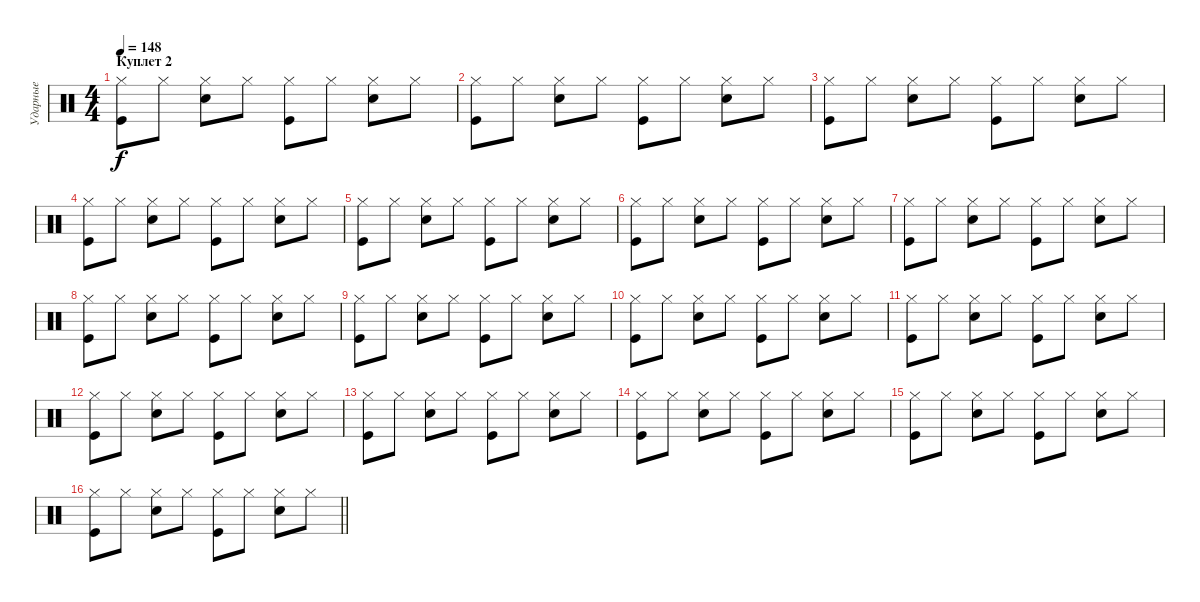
\track ("Ударные" "Ударные") {instrument percussion}
\staff {score}
\articulation defaults
\ts (4 4)
\section ("" "Куплет 2")
\tempo 148
\clef neutral
\ks c
("Hi-Hat (closed)" "Kick (hit)").8{dy f} "Hi-Hat (closed)".8 ("Hi-Hat (closed)" "Snare (hit) 2").8 "Hi-Hat (closed)".8 ("Hi-Hat (closed)" "Kick (hit)").8 "Hi-Hat (closed)".8 ("Hi-Hat (closed)" "Snare (hit) 2").8 "Hi-Hat (closed)".8 |
("Hi-Hat (closed)" "Kick (hit)").8 "Hi-Hat (closed)".8 ("Hi-Hat (closed)" "Snare (hit) 2").8 "Hi-Hat (closed)".8 ("Hi-Hat (closed)" "Kick (hit)").8 "Hi-Hat (closed)".8 ("Hi-Hat (closed)" "Snare (hit) 2").8 "Hi-Hat (closed)".8 |
("Hi-Hat (closed)" "Kick (hit)").8 "Hi-Hat (closed)".8 ("Hi-Hat (closed)" "Snare (hit) 2").8 "Hi-Hat (closed)".8 ("Hi-Hat (closed)" "Kick (hit)").8 "Hi-Hat (closed)".8 ("Hi-Hat (closed)" "Snare (hit) 2").8 "Hi-Hat (closed)".8 |
("Hi-Hat (closed)" "Kick (hit)").8 "Hi-Hat (closed)".8 ("Hi-Hat (closed)" "Snare (hit) 2").8 "Hi-Hat (closed)".8 ("Hi-Hat (closed)" "Kick (hit)").8 "Hi-Hat (closed)".8 ("Hi-Hat (closed)" "Snare (hit) 2").8 "Hi-Hat (closed)".8 |
("Hi-Hat (closed)" "Kick (hit)").8 "Hi-Hat (closed)".8 ("Hi-Hat (closed)" "Snare (hit) 2").8 "Hi-Hat (closed)".8 ("Hi-Hat (closed)" "Kick (hit)").8 "Hi-Hat (closed)".8 ("Hi-Hat (closed)" "Snare (hit) 2").8 "Hi-Hat (closed)".8 |
("Hi-Hat (closed)" "Kick (hit)").8 "Hi-Hat (closed)".8 ("Hi-Hat (closed)" "Snare (hit) 2").8 "Hi-Hat (closed)".8 ("Hi-Hat (closed)" "Kick (hit)").8 "Hi-Hat (closed)".8 ("Hi-Hat (closed)" "Snare (hit) 2").8 "Hi-Hat (closed)".8 |
("Hi-Hat (closed)" "Kick (hit)").8 "Hi-Hat (closed)".8 ("Hi-Hat (closed)" "Snare (hit) 2").8 "Hi-Hat (closed)".8 ("Hi-Hat (closed)" "Kick (hit)").8 "Hi-Hat (closed)".8 ("Hi-Hat (closed)" "Snare (hit) 2").8 "Hi-Hat (closed)".8 |
("Hi-Hat (closed)" "Kick (hit)").8 "Hi-Hat (closed)".8 ("Hi-Hat (closed)" "Snare (hit) 2").8 "Hi-Hat (closed)".8 ("Hi-Hat (closed)" "Kick (hit)").8 "Hi-Hat (closed)".8 ("Hi-Hat (closed)" "Snare (hit) 2").8 "Hi-Hat (closed)".8 |
("Hi-Hat (closed)" "Kick (hit)").8 "Hi-Hat (closed)".8 ("Hi-Hat (closed)" "Snare (hit) 2").8 "Hi-Hat (closed)".8 ("Hi-Hat (closed)" "Kick (hit)").8 "Hi-Hat (closed)".8 ("Hi-Hat (closed)" "Snare (hit) 2").8 "Hi-Hat (closed)".8 |
("Hi-Hat (closed)" "Kick (hit)").8 "Hi-Hat (closed)".8 ("Hi-Hat (closed)" "Snare (hit) 2").8 "Hi-Hat (closed)".8 ("Hi-Hat (closed)" "Kick (hit)").8 "Hi-Hat (closed)".8 ("Hi-Hat (closed)" "Snare (hit) 2").8 "Hi-Hat (closed)".8 |
("Hi-Hat (closed)" "Kick (hit)").8 "Hi-Hat (closed)".8 ("Hi-Hat (closed)" "Snare (hit) 2").8 "Hi-Hat (closed)".8 ("Hi-Hat (closed)" "Kick (hit)").8 "Hi-Hat (closed)".8 ("Hi-Hat (closed)" "Snare (hit) 2").8 "Hi-Hat (closed)".8 |
("Hi-Hat (closed)" "Kick (hit)").8 "Hi-Hat (closed)".8 ("Hi-Hat (closed)" "Snare (hit) 2").8 "Hi-Hat (closed)".8 ("Hi-Hat (closed)" "Kick (hit)").8 "Hi-Hat (closed)".8 ("Hi-Hat (closed)" "Snare (hit) 2").8 "Hi-Hat (closed)".8 |
("Hi-Hat (closed)" "Kick (hit)").8 "Hi-Hat (closed)".8 ("Hi-Hat (closed)" "Snare (hit) 2").8 "Hi-Hat (closed)".8 ("Hi-Hat (closed)" "Kick (hit)").8 "Hi-Hat (closed)".8 ("Hi-Hat (closed)" "Snare (hit) 2").8 "Hi-Hat (closed)".8 |
("Hi-Hat (closed)" "Kick (hit)").8 "Hi-Hat (closed)".8 ("Hi-Hat (closed)" "Snare (hit) 2").8 "Hi-Hat (closed)".8 ("Hi-Hat (closed)" "Kick (hit)").8 "Hi-Hat (closed)".8 ("Hi-Hat (closed)" "Snare (hit) 2").8 "Hi-Hat (closed)".8 |
("Hi-Hat (closed)" "Kick (hit)").8 "Hi-Hat (closed)".8 ("Hi-Hat (closed)" "Snare (hit) 2").8 "Hi-Hat (closed)".8 ("Hi-Hat (closed)" "Kick (hit)").8 "Hi-Hat (closed)".8 ("Hi-Hat (closed)" "Snare (hit) 2").8 "Hi-Hat (closed)".8 |
\barLineRight lightlight
("Hi-Hat (closed)" "Kick (hit)").8 "Hi-Hat (closed)".8 ("Hi-Hat (closed)" "Snare (hit) 2").8 "Hi-Hat (closed)".8 ("Hi-Hat (closed)" "Kick (hit)").8 "Hi-Hat (closed)".8 ("Hi-Hat (closed)" "Snare (hit) 2").8 "Hi-Hat (closed)".8
